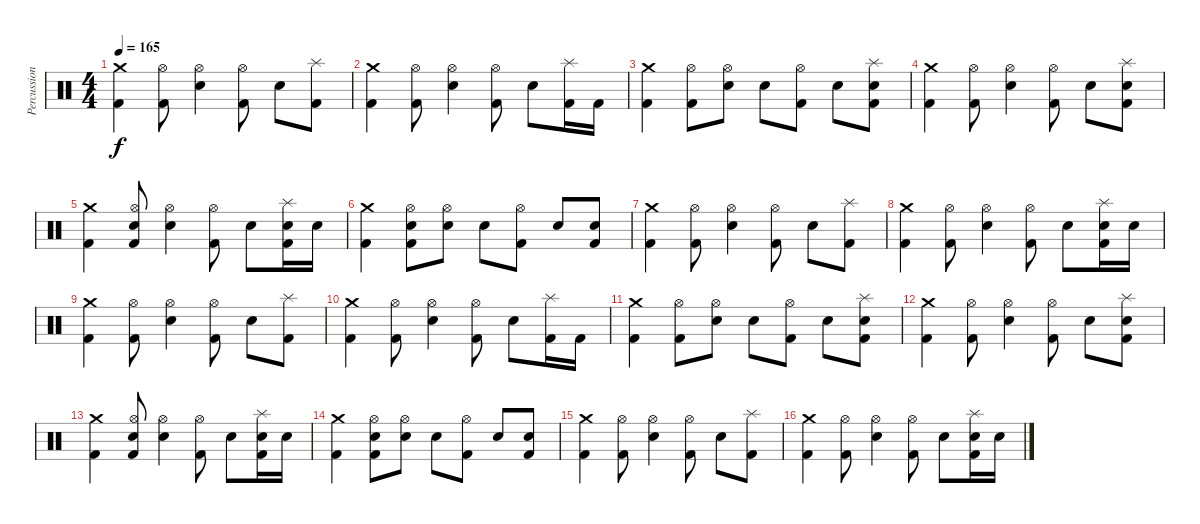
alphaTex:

\track ("Percussion" "Percussion") {instrument percussion}
\staff {score}
\articulation defaults
\ts (4 4)
\tempo 165
\clef neutral
\ks c
("Crash medium (hit)" "Kick (hit) 2").4{dy f} ("Hi-Hat (open)" "Kick (hit) 2").8 ("Hi-Hat (open)" "Electric Snare (hit)").4 ("Hi-Hat (open)" "Kick (hit) 2").8 "Electric Snare (hit)".8 ("Splash (hit)" "Kick (hit) 2").8 |
("Crash medium (hit)" "Kick (hit) 2").4 ("Hi-Hat (open)" "Kick (hit) 2").8 ("Hi-Hat (open)" "Electric Snare (hit)").4 ("Hi-Hat (open)" "Kick (hit) 2").8 "Electric Snare (hit)".8 ("Splash (hit)" "Kick (hit) 2").16 "Kick (hit) 2".16 |
("Crash medium (hit)" "Kick (hit) 2").4 ("Hi-Hat (open)" "Kick (hit) 2").8 ("Hi-Hat (open)" "Electric Snare (hit)").8 "Electric Snare (hit)".8 ("Hi-Hat (open)" "Kick (hit) 2").8 "Electric Snare (hit)".8 ("Splash (hit)" "Electric Snare (hit)" "Kick (hit) 2").8 |
("Crash medium (hit)" "Kick (hit) 2").4 ("Hi-Hat (open)" "Kick (hit) 2").8 ("Hi-Hat (open)" "Electric Snare (hit)").4 ("Hi-Hat (open)" "Kick (hit) 2").8 "Electric Snare (hit)".8 ("Splash (hit)" "Electric Snare (hit)" "Kick (hit) 2").8 |
("Crash medium (hit)" "Kick (hit) 2").4 ("Hi-Hat (open)" "Electric Snare (hit)" "Kick (hit) 2").8 ("Hi-Hat (open)" "Electric Snare (hit)").4 ("Hi-Hat (open)" "Kick (hit) 2").8 "Electric Snare (hit)".8 ("Splash (hit)" "Electric Snare (hit)" "Kick (hit) 2").16 "Electric Snare (hit)".16 |
("Crash medium (hit)" "Kick (hit) 2").4 ("Hi-Hat (open)" "Electric Snare (hit)" "Kick (hit) 2").8 ("Hi-Hat (open)" "Electric Snare (hit)").8 "Electric Snare (hit)".8 ("Hi-Hat (open)" "Kick (hit) 2").8 "Electric Snare (hit)".8 ("Electric Snare (hit)" "Kick (hit) 2").8 |
("Crash medium (hit)" "Kick (hit) 2").4 ("Hi-Hat (open)" "Kick (hit) 2").8 ("Hi-Hat (open)" "Electric Snare (hit)").4 ("Hi-Hat (open)" "Kick (hit) 2").8 "Electric Snare (hit)".8 ("Splash (hit)" "Kick (hit) 2").8 |
("Crash medium (hit)" "Kick (hit) 2").4 ("Hi-Hat (open)" "Kick (hit) 2").8 ("Hi-Hat (open)" "Electric Snare (hit)").4 ("Hi-Hat (open)" "Kick (hit) 2").8 "Electric Snare (hit)".8 ("Splash (hit)" "Electric Snare (hit)" "Kick (hit) 2").16 "Electric Snare (hit)".16 |
("Crash medium (hit)" "Kick (hit) 2").4 ("Hi-Hat (open)" "Kick (hit) 2").8 ("Hi-Hat (open)" "Electric Snare (hit)").4 ("Hi-Hat (open)" "Kick (hit) 2").8 "Electric Snare (hit)".8 ("Splash (hit)" "Kick (hit) 2").8 |
("Crash medium (hit)" "Kick (hit) 2").4 ("Hi-Hat (open)" "Kick (hit) 2").8 ("Hi-Hat (open)" "Electric Snare (hit)").4 ("Hi-Hat (open)" "Kick (hit) 2").8 "Electric Snare (hit)".8 ("Splash (hit)" "Kick (hit) 2").16 "Kick (hit) 2".16 |
("Crash medium (hit)" "Kick (hit) 2").4 ("Hi-Hat (open)" "Kick (hit) 2").8 ("Hi-Hat (open)" "Electric Snare (hit)").8 "Electric Snare (hit)".8 ("Hi-Hat (open)" "Kick (hit) 2").8 "Electric Snare (hit)".8 ("Splash (hit)" "Electric Snare (hit)" "Kick (hit) 2").8 |
("Crash medium (hit)" "Kick (hit) 2").4 ("Hi-Hat (open)" "Kick (hit) 2").8 ("Hi-Hat (open)" "Electric Snare (hit)").4 ("Hi-Hat (open)" "Kick (hit) 2").8 "Electric Snare (hit)".8 ("Splash (hit)" "Electric Snare (hit)" "Kick (hit) 2").8 |
("Crash medium (hit)" "Kick (hit) 2").4 ("Hi-Hat (open)" "Electric Snare (hit)" "Kick (hit) 2").8 ("Hi-Hat (open)" "Electric Snare (hit)").4 ("Hi-Hat (open)" "Kick (hit) 2").8 "Electric Snare (hit)".8 ("Splash (hit)" "Electric Snare (hit)" "Kick (hit) 2").16 "Electric Snare (hit)".16 |
("Crash medium (hit)" "Kick (hit) 2").4 ("Hi-Hat (open)" "Electric Snare (hit)" "Kick (hit) 2").8 ("Hi-Hat (open)" "Electric Snare (hit)").8 "Electric Snare (hit)".8 ("Hi-Hat (open)" "Kick (hit) 2").8 "Electric Snare (hit)".8 ("Electric Snare (hit)" "Kick (hit) 2").8 |
("Crash medium (hit)" "Kick (hit) 2").4 ("Hi-Hat (open)" "Kick (hit) 2").8 ("Hi-Hat (open)" "Electric Snare (hit)").4 ("Hi-Hat (open)" "Kick (hit) 2").8 "Electric Snare (hit)".8 ("Splash (hit)" "Kick (hit) 2").8 |
("Crash medium (hit)" "Kick (hit) 2").4 ("Hi-Hat (open)" "Kick (hit) 2").8 ("Hi-Hat (open)" "Electric Snare (hit)").4 ("Hi-Hat (open)" "Kick (hit) 2").8 "Electric Snare (hit)".8 ("Splash (hit)" "Electric Snare (hit)" "Kick (hit) 2").16 "Electric Snare (hit)".16
